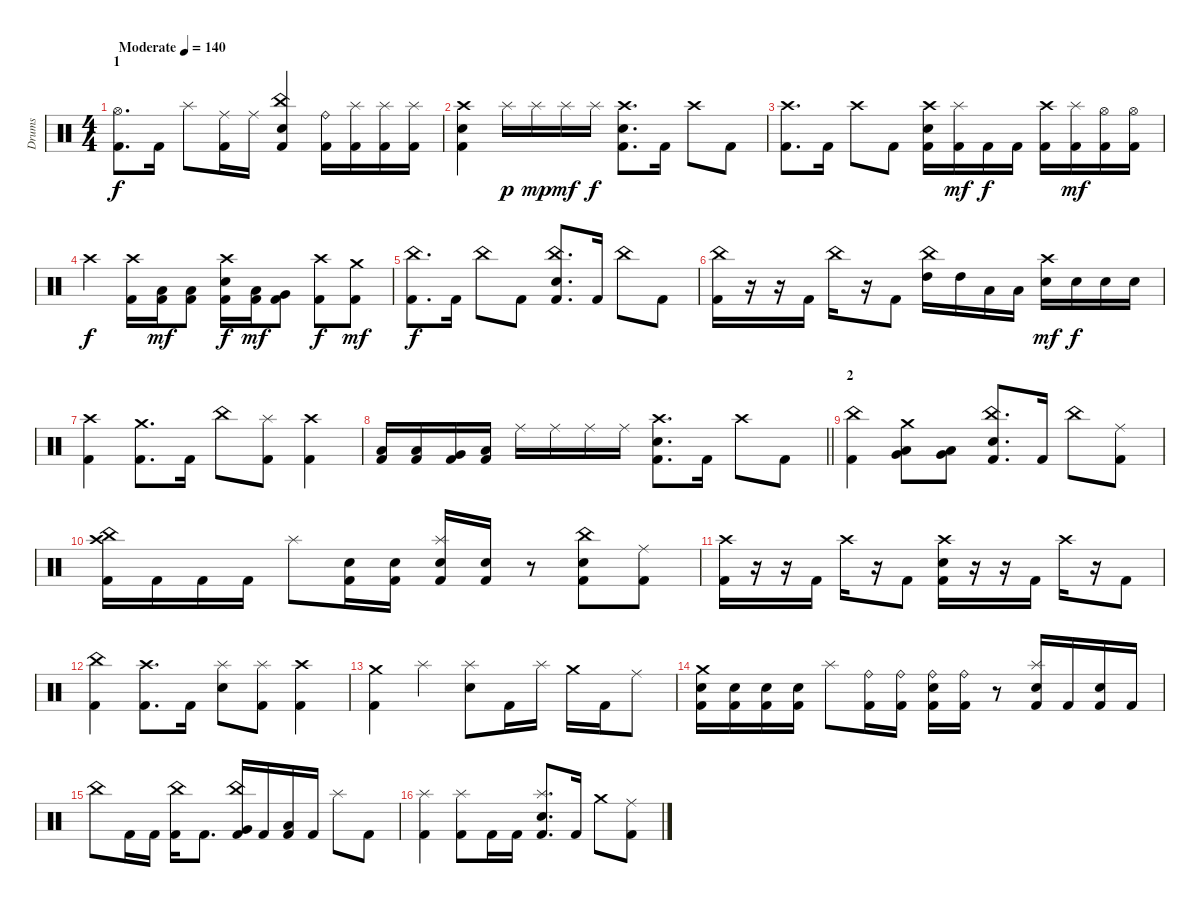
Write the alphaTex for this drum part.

\track ("Drums" "Drums") {instrument percussion}
\staff {score}
\articulation defaults
\ts (4 4)
\section ("" "1")
\tempo (140 "Moderate")
\clef neutral
\ks c
("Hi-Hat (open)" "Kick (hit) 2").8{d dy f} "Kick (hit) 2".16 "Splash (hit)".8 ("Ride (middle)" "Kick (hit) 2").16 "Ride (middle)".16 ("China (hit)" "Electric Snare (hit)" "Kick (hit) 2").4 ("Ride (bell)" "Kick (hit) 2").16 ("Splash (hit)" "Kick (hit) 2").16 ("Splash (hit)" "Kick (hit) 2").16 ("Splash (hit)" "Kick (hit) 2").16 |
("Crash high (hit)" "Electric Snare (hit)" "Kick (hit) 2").4 "Splash (hit)".16{dy p} "Splash (hit)".16{dy mp} "Splash (hit)".16{dy mf} "Splash (hit)".16{dy f} ("Crash high (hit)" "Electric Snare (hit)" "Kick (hit) 2").8{d} "Kick (hit) 2".16 "Crash high (hit)".8 "Kick (hit) 2".8 |
("Crash high (hit)" "Kick (hit) 2").8{d} "Kick (hit) 2".16 "Crash high (hit)".8 "Kick (hit) 2".8 ("Crash high (hit)" "Electric Snare (hit)" "Kick (hit) 2").16 ("Splash (hit)" "Kick (hit) 2").16{dy mf} "Kick (hit) 2".16{dy f} "Kick (hit) 2".16 ("Crash high (hit)" "Kick (hit) 2").16 ("Splash (hit)" "Kick (hit) 2").16{dy mf} ("Hi-Hat (open)" "Kick (hit) 2").16 ("Hi-Hat (open)" "Kick (hit) 2").16 |
"Crash high (hit)".4{dy f} ("Crash high (hit)" "Kick (hit) 2").16 ("Low Tom (hit)" "Kick (hit) 2").16{dy mf} ("Low Floor Tom (hit)" "Kick (hit) 2").8 ("Crash high (hit)" "Electric Snare (hit)" "Kick (hit) 2").16{dy f} ("Low Floor Tom (hit)" "Kick (hit) 2").16{dy mf} ("Very Low Tom (hit)" "Kick (hit) 2").8 ("Crash high (hit)" "Kick (hit) 2").8{dy f} ("Crash medium (hit)" "Kick (hit) 2").8{dy mf} |
("China (hit)" "Kick (hit) 2").8{d dy f} "Kick (hit) 2".16 "China (hit)".8 "Kick (hit) 2".8 ("China (hit)" "Electric Snare (hit)" "Kick (hit) 2").8{d} "Kick (hit) 2".16 "China (hit)".8 "Kick (hit) 2".8 |
("China (hit)" "Kick (hit) 2").16 r.16 r.16 "Kick (hit) 2".16 "China (hit)".16 r.16 "Kick (hit) 2".8 ("China (hit)" "High Tom (hit)").16 "High Tom (hit)".16 "Low Tom (hit)".16 "Low Tom (hit)".16 ("Crash high (hit)" "Electric Snare (hit)").16{dy mf} "Electric Snare (hit)".16{dy f} "Electric Snare (hit)".16 "Electric Snare (hit)".16 |
("Crash high (hit)" "Kick (hit) 2").4 ("Crash medium (hit)" "Kick (hit) 2").8{d} "Kick (hit) 2".16 "China (hit)".8 ("Splash (hit)" "Kick (hit) 2").8 ("Crash high (hit)" "Kick (hit) 2").4 |
\barLineRight lightlight
("Low Tom (hit)" "Kick (hit) 2").16 ("Low Tom (hit)" "Kick (hit) 2").16 ("Very Low Tom (hit)" "Kick (hit) 2").16 ("Low Floor Tom (hit)" "Kick (hit) 2").16 "Ride (middle)".16 "Ride (middle)".16 "Ride (middle)".16 "Ride (middle)".16 ("Crash high (hit)" "Electric Snare (hit)" "Kick (hit) 2").8{d} "Kick (hit) 2".16 "Crash high (hit)".8 "Kick (hit) 2".8 |
\section ("" "2")
("China (hit)" "Kick (hit) 2").4 ("Crash medium (hit)" "Low Tom (hit)" "Very Low Tom (hit)").8 ("Very Low Tom (hit)" "Low Floor Tom (hit)").8 ("China (hit)" "Electric Snare (hit)" "Kick (hit) 2").8{d} "Kick (hit) 2".16 "China (hit)".8 ("Ride (middle)" "Kick (hit) 2").8 |
("Crash high (hit)" "China (hit)" "Kick (hit) 2").16 "Kick (hit) 2".16 "Kick (hit) 2".16 "Kick (hit) 2".16 "Splash (hit)".8 ("Electric Snare (hit)" "Kick (hit) 2").16 ("Electric Snare (hit)" "Kick (hit) 2").16 ("Splash (hit)" "Electric Snare (hit)" "Kick (hit) 2").16 ("Electric Snare (hit)" "Kick (hit) 2").16 r.8 ("China (hit)" "Electric Snare (hit)" "Kick (hit) 2").8 ("Ride (middle)" "Kick (hit) 2").8 |
("Crash high (hit)" "Kick (hit) 2").16 r.16 r.16 "Kick (hit) 2".16 "Crash high (hit)".16 r.16 "Kick (hit) 2".8 ("Crash high (hit)" "Electric Snare (hit)" "Kick (hit) 2").16 r.16 r.16 "Kick (hit) 2".16 "Crash high (hit)".16 r.16 "Kick (hit) 2".8 |
("China (hit)" "Kick (hit) 2").4 ("Crash high (hit)" "Kick (hit) 2").8{d} "Kick (hit) 2".16 ("Splash (hit)" "Electric Snare (hit)").8 ("Splash (hit)" "Kick (hit) 2").8 ("Crash high (hit)" "Kick (hit) 2").4 |
("Crash medium (hit)" "Kick (hit) 2").4 "Splash (hit)".4 ("Splash (hit)" "Electric Snare (hit)").8 "Kick (hit) 2".16 "Splash (hit)".16 "Crash medium (hit)".16 "Kick (hit) 2".16 "Ride (middle)".8 |
("Crash medium (hit)" "Electric Snare (hit)" "Kick (hit) 2").16 ("Electric Snare (hit)" "Kick (hit) 2").16 ("Electric Snare (hit)" "Kick (hit) 2").16 ("Electric Snare (hit)" "Kick (hit) 2").16 "Splash (hit)".8 ("Ride (bell)" "Kick (hit) 2").16 ("Ride (bell)" "Kick (hit) 2").16 ("Ride (bell)" "Electric Snare (hit)" "Kick (hit) 2").16 ("Ride (bell)" "Kick (hit) 2").16 r.8 ("Splash (hit)" "Electric Snare (hit)" "Kick (hit) 2").16 "Kick (hit) 2".16 ("Electric Snare (hit)" "Kick (hit) 2").16 "Kick (hit) 2".16 |
"China (hit)".8 "Kick (hit) 2".16 "Kick (hit) 2".16 ("China (hit)" "Kick (hit) 2").16 "Kick (hit) 2".8{d} ("China (hit)" "Very Low Tom (hit)" "Kick (hit) 2").16 "Kick (hit) 2".16 ("Low Floor Tom (hit)" "Kick (hit) 2").16 "Kick (hit) 2".16 "Splash (hit)".8 "Kick (hit) 2".8 |
("Splash (hit)" "Kick (hit) 2").4 ("Splash (hit)" "Kick (hit) 2").8 "Kick (hit) 2".16 "Kick (hit) 2".16 ("Splash (hit)" "Electric Snare (hit)" "Kick (hit) 2").8{d} "Kick (hit) 2".16 "Crash medium (hit)".8 ("Ride (middle)" "Kick (hit) 2").8
